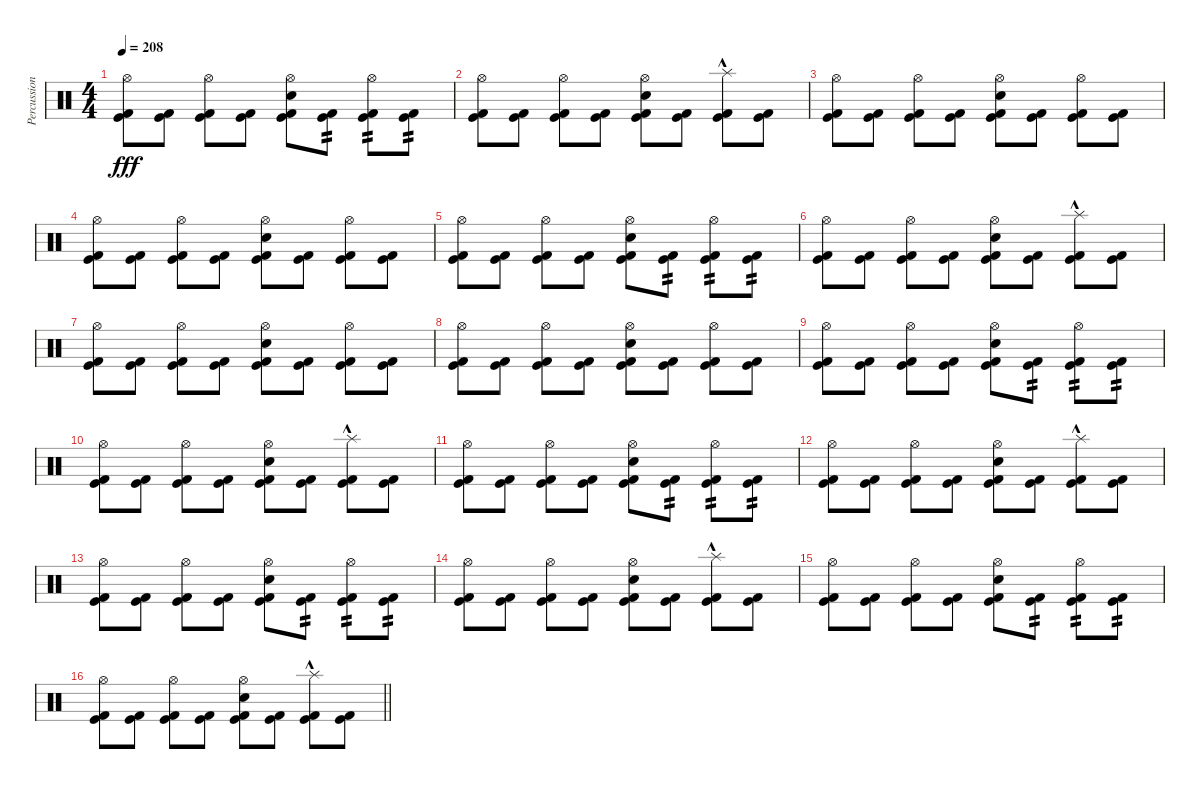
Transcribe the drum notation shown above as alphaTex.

\track ("Percussion" "Percussion") {instrument percussion}
\staff {score}
\articulation defaults
\ts (4 4)
\tempo 208
\clef neutral
\ks c
("Hi-Hat (open)" "Kick (hit) 2" "Kick (hit)").8{dy fff} ("Kick (hit) 2" "Kick (hit)").8 ("Hi-Hat (open)" "Kick (hit) 2" "Kick (hit)").8 ("Kick (hit) 2" "Kick (hit)").8 ("Hi-Hat (open)" "Electric Snare (hit)" "Kick (hit) 2" "Kick (hit)").8 ("Kick (hit) 2" "Kick (hit)").8{tp 2} ("Hi-Hat (open)" "Kick (hit) 2" "Kick (hit)").8{tp 2} ("Kick (hit) 2" "Kick (hit)").8{tp 2} |
("Hi-Hat (open)" "Kick (hit) 2" "Kick (hit)").8 ("Kick (hit) 2" "Kick (hit)").8 ("Hi-Hat (open)" "Kick (hit) 2" "Kick (hit)").8 ("Kick (hit) 2" "Kick (hit)").8 ("Hi-Hat (open)" "Electric Snare (hit)" "Kick (hit) 2" "Kick (hit)").8 ("Kick (hit) 2" "Kick (hit)").8 ("Splash (hit)"{hac} "Kick (hit) 2" "Kick (hit)").8 ("Kick (hit) 2" "Kick (hit)").8 |
("Hi-Hat (open)" "Kick (hit) 2" "Kick (hit)").8 ("Kick (hit) 2" "Kick (hit)").8 ("Hi-Hat (open)" "Kick (hit) 2" "Kick (hit)").8 ("Kick (hit) 2" "Kick (hit)").8 ("Hi-Hat (open)" "Electric Snare (hit)" "Kick (hit) 2" "Kick (hit)").8 ("Kick (hit) 2" "Kick (hit)").8 ("Hi-Hat (open)" "Kick (hit) 2" "Kick (hit)").8 ("Kick (hit) 2" "Kick (hit)").8 |
("Hi-Hat (open)" "Kick (hit) 2" "Kick (hit)").8 ("Kick (hit) 2" "Kick (hit)").8 ("Hi-Hat (open)" "Kick (hit) 2" "Kick (hit)").8 ("Kick (hit) 2" "Kick (hit)").8 ("Hi-Hat (open)" "Electric Snare (hit)" "Kick (hit) 2" "Kick (hit)").8 ("Kick (hit) 2" "Kick (hit)").8 ("Hi-Hat (open)" "Kick (hit) 2" "Kick (hit)").8 ("Kick (hit) 2" "Kick (hit)").8 |
("Hi-Hat (open)" "Kick (hit) 2" "Kick (hit)").8 ("Kick (hit) 2" "Kick (hit)").8 ("Hi-Hat (open)" "Kick (hit) 2" "Kick (hit)").8 ("Kick (hit) 2" "Kick (hit)").8 ("Hi-Hat (open)" "Electric Snare (hit)" "Kick (hit) 2" "Kick (hit)").8 ("Kick (hit) 2" "Kick (hit)").8{tp 2} ("Hi-Hat (open)" "Kick (hit) 2" "Kick (hit)").8{tp 2} ("Kick (hit) 2" "Kick (hit)").8{tp 2} |
("Hi-Hat (open)" "Kick (hit) 2" "Kick (hit)").8 ("Kick (hit) 2" "Kick (hit)").8 ("Hi-Hat (open)" "Kick (hit) 2" "Kick (hit)").8 ("Kick (hit) 2" "Kick (hit)").8 ("Hi-Hat (open)" "Electric Snare (hit)" "Kick (hit) 2" "Kick (hit)").8 ("Kick (hit) 2" "Kick (hit)").8 ("Splash (hit)"{hac} "Kick (hit) 2" "Kick (hit)").8 ("Kick (hit) 2" "Kick (hit)").8 |
("Hi-Hat (open)" "Kick (hit) 2" "Kick (hit)").8 ("Kick (hit) 2" "Kick (hit)").8 ("Hi-Hat (open)" "Kick (hit) 2" "Kick (hit)").8 ("Kick (hit) 2" "Kick (hit)").8 ("Hi-Hat (open)" "Electric Snare (hit)" "Kick (hit) 2" "Kick (hit)").8 ("Kick (hit) 2" "Kick (hit)").8 ("Hi-Hat (open)" "Kick (hit) 2" "Kick (hit)").8 ("Kick (hit) 2" "Kick (hit)").8 |
("Hi-Hat (open)" "Kick (hit) 2" "Kick (hit)").8 ("Kick (hit) 2" "Kick (hit)").8 ("Hi-Hat (open)" "Kick (hit) 2" "Kick (hit)").8 ("Kick (hit) 2" "Kick (hit)").8 ("Hi-Hat (open)" "Electric Snare (hit)" "Kick (hit) 2" "Kick (hit)").8 ("Kick (hit) 2" "Kick (hit)").8 ("Hi-Hat (open)" "Kick (hit) 2" "Kick (hit)").8 ("Kick (hit) 2" "Kick (hit)").8 |
("Hi-Hat (open)" "Kick (hit) 2" "Kick (hit)").8 ("Kick (hit) 2" "Kick (hit)").8 ("Hi-Hat (open)" "Kick (hit) 2" "Kick (hit)").8 ("Kick (hit) 2" "Kick (hit)").8 ("Hi-Hat (open)" "Electric Snare (hit)" "Kick (hit) 2" "Kick (hit)").8 ("Kick (hit) 2" "Kick (hit)").8{tp 2} ("Hi-Hat (open)" "Kick (hit) 2" "Kick (hit)").8{tp 2} ("Kick (hit) 2" "Kick (hit)").8{tp 2} |
("Hi-Hat (open)" "Kick (hit) 2" "Kick (hit)").8 ("Kick (hit) 2" "Kick (hit)").8 ("Hi-Hat (open)" "Kick (hit) 2" "Kick (hit)").8 ("Kick (hit) 2" "Kick (hit)").8 ("Hi-Hat (open)" "Electric Snare (hit)" "Kick (hit) 2" "Kick (hit)").8 ("Kick (hit) 2" "Kick (hit)").8 ("Splash (hit)"{hac} "Kick (hit) 2" "Kick (hit)").8 ("Kick (hit) 2" "Kick (hit)").8 |
("Hi-Hat (open)" "Kick (hit) 2" "Kick (hit)").8 ("Kick (hit) 2" "Kick (hit)").8 ("Hi-Hat (open)" "Kick (hit) 2" "Kick (hit)").8 ("Kick (hit) 2" "Kick (hit)").8 ("Hi-Hat (open)" "Electric Snare (hit)" "Kick (hit) 2" "Kick (hit)").8 ("Kick (hit) 2" "Kick (hit)").8{tp 2} ("Hi-Hat (open)" "Kick (hit) 2" "Kick (hit)").8{tp 2} ("Kick (hit) 2" "Kick (hit)").8{tp 2} |
("Hi-Hat (open)" "Kick (hit) 2" "Kick (hit)").8 ("Kick (hit) 2" "Kick (hit)").8 ("Hi-Hat (open)" "Kick (hit) 2" "Kick (hit)").8 ("Kick (hit) 2" "Kick (hit)").8 ("Hi-Hat (open)" "Electric Snare (hit)" "Kick (hit) 2" "Kick (hit)").8 ("Kick (hit) 2" "Kick (hit)").8 ("Splash (hit)"{hac} "Kick (hit) 2" "Kick (hit)").8 ("Kick (hit) 2" "Kick (hit)").8 |
("Hi-Hat (open)" "Kick (hit) 2" "Kick (hit)").8 ("Kick (hit) 2" "Kick (hit)").8 ("Hi-Hat (open)" "Kick (hit) 2" "Kick (hit)").8 ("Kick (hit) 2" "Kick (hit)").8 ("Hi-Hat (open)" "Electric Snare (hit)" "Kick (hit) 2" "Kick (hit)").8 ("Kick (hit) 2" "Kick (hit)").8{tp 2} ("Hi-Hat (open)" "Kick (hit) 2" "Kick (hit)").8{tp 2} ("Kick (hit) 2" "Kick (hit)").8{tp 2} |
("Hi-Hat (open)" "Kick (hit) 2" "Kick (hit)").8 ("Kick (hit) 2" "Kick (hit)").8 ("Hi-Hat (open)" "Kick (hit) 2" "Kick (hit)").8 ("Kick (hit) 2" "Kick (hit)").8 ("Hi-Hat (open)" "Electric Snare (hit)" "Kick (hit) 2" "Kick (hit)").8 ("Kick (hit) 2" "Kick (hit)").8 ("Splash (hit)"{hac} "Kick (hit) 2" "Kick (hit)").8 ("Kick (hit) 2" "Kick (hit)").8 |
("Hi-Hat (open)" "Kick (hit) 2" "Kick (hit)").8 ("Kick (hit) 2" "Kick (hit)").8 ("Hi-Hat (open)" "Kick (hit) 2" "Kick (hit)").8 ("Kick (hit) 2" "Kick (hit)").8 ("Hi-Hat (open)" "Electric Snare (hit)" "Kick (hit) 2" "Kick (hit)").8 ("Kick (hit) 2" "Kick (hit)").8{tp 2} ("Hi-Hat (open)" "Kick (hit) 2" "Kick (hit)").8{tp 2} ("Kick (hit) 2" "Kick (hit)").8{tp 2} |
\barLineRight lightlight
("Hi-Hat (open)" "Kick (hit) 2" "Kick (hit)").8 ("Kick (hit) 2" "Kick (hit)").8 ("Hi-Hat (open)" "Kick (hit) 2" "Kick (hit)").8 ("Kick (hit) 2" "Kick (hit)").8 ("Hi-Hat (open)" "Electric Snare (hit)" "Kick (hit) 2" "Kick (hit)").8 ("Kick (hit) 2" "Kick (hit)").8 ("Splash (hit)"{hac} "Kick (hit) 2" "Kick (hit)").8 ("Kick (hit) 2" "Kick (hit)").8
